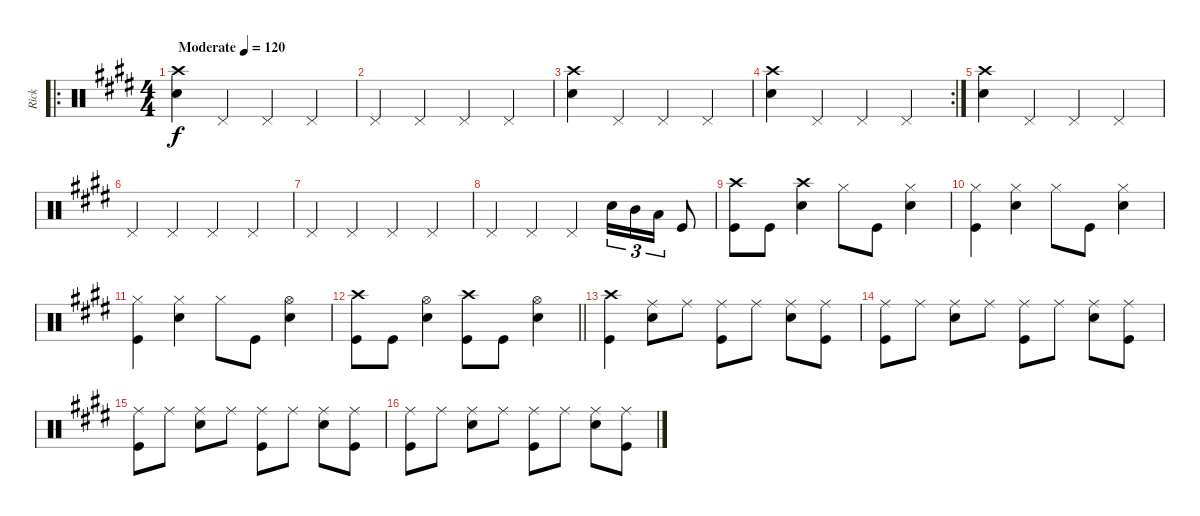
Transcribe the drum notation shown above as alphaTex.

\track ("Rick" "Rick") {instrument percussion}
\staff {score}
\articulation defaults
\ro
\ts (4 4)
\tempo (120 "Moderate")
\clef neutral
\ks c#minor
("Crash high (hit)" "Snare (hit) 2").4{dy f} "Pedal Hi-Hat (hit)".4 "Pedal Hi-Hat (hit)".4 "Pedal Hi-Hat (hit)".4 |
"Pedal Hi-Hat (hit)".4 "Pedal Hi-Hat (hit)".4 "Pedal Hi-Hat (hit)".4 "Pedal Hi-Hat (hit)".4 |
("Crash high (hit)" "Snare (hit) 2").4 "Pedal Hi-Hat (hit)".4 "Pedal Hi-Hat (hit)".4 "Pedal Hi-Hat (hit)".4 |
\rc 2
("Crash high (hit)" "Snare (hit) 2").4 "Pedal Hi-Hat (hit)".4 "Pedal Hi-Hat (hit)".4 "Pedal Hi-Hat (hit)".4 |
("Crash high (hit)" "Snare (hit) 2").4 "Pedal Hi-Hat (hit)".4 "Pedal Hi-Hat (hit)".4 "Pedal Hi-Hat (hit)".4 |
"Pedal Hi-Hat (hit)".4 "Pedal Hi-Hat (hit)".4 "Pedal Hi-Hat (hit)".4 "Pedal Hi-Hat (hit)".4 |
"Pedal Hi-Hat (hit)".4 "Pedal Hi-Hat (hit)".4 "Pedal Hi-Hat (hit)".4 "Pedal Hi-Hat (hit)".4 |
"Pedal Hi-Hat (hit)".4 "Pedal Hi-Hat (hit)".4 "Pedal Hi-Hat (hit)".4 "Snare (hit) 2".16{tu (3 2)} "Mid Tom (hit)".16{tu (3 2)} "Low Tom (hit)".16{tu (3 2)} "Kick (hit)".8 |
("Crash high (hit)" "Kick (hit)").8 "Kick (hit)".8 ("Crash high (hit)" "Snare (hit) 2").4 "Hi-Hat (closed)".8 "Kick (hit)".8 ("Hi-Hat (closed)" "Snare (hit) 2").4 |
("Hi-Hat (closed)" "Kick (hit)").4 ("Hi-Hat (closed)" "Snare (hit) 2").4 "Hi-Hat (closed)".8 "Kick (hit)".8 ("Hi-Hat (closed)" "Snare (hit) 2").4 |
("Hi-Hat (closed)" "Kick (hit)").4 ("Hi-Hat (closed)" "Snare (hit) 2").4 "Hi-Hat (closed)".8 "Kick (hit)".8 ("Hi-Hat (open)" "Snare (hit) 2").4 |
\barLineRight lightlight
("Crash high (hit)" "Kick (hit)").8 "Kick (hit)".8 ("Hi-Hat (open)" "Snare (hit) 2").4 ("Crash high (hit)" "Kick (hit)").8 "Kick (hit)".8 ("Hi-Hat (open)" "Snare (hit) 2").4 |
("Crash high (hit)" "Kick (hit)").4 ("Ride (middle)" "Snare (hit) 2").8 "Ride (middle)".8 ("Ride (middle)" "Kick (hit)").8 "Ride (middle)".8 ("Ride (middle)" "Snare (hit) 2").8 ("Ride (middle)" "Kick (hit)").8 |
("Ride (middle)" "Kick (hit)").8 "Ride (middle)".8 ("Ride (middle)" "Snare (hit) 2").8 "Ride (middle)".8 ("Ride (middle)" "Kick (hit)").8 "Ride (middle)".8 ("Ride (middle)" "Snare (hit) 2").8 ("Ride (middle)" "Kick (hit)").8 |
("Ride (middle)" "Kick (hit)").8 "Ride (middle)".8 ("Ride (middle)" "Snare (hit) 2").8 "Ride (middle)".8 ("Ride (middle)" "Kick (hit)").8 "Ride (middle)".8 ("Ride (middle)" "Snare (hit) 2").8 ("Ride (middle)" "Kick (hit)").8 |
("Ride (middle)" "Kick (hit)").8 "Ride (middle)".8 ("Ride (middle)" "Snare (hit) 2").8 "Ride (middle)".8 ("Ride (middle)" "Kick (hit)").8 "Ride (middle)".8 ("Ride (middle)" "Snare (hit) 2").8 ("Ride (middle)" "Kick (hit)").8
